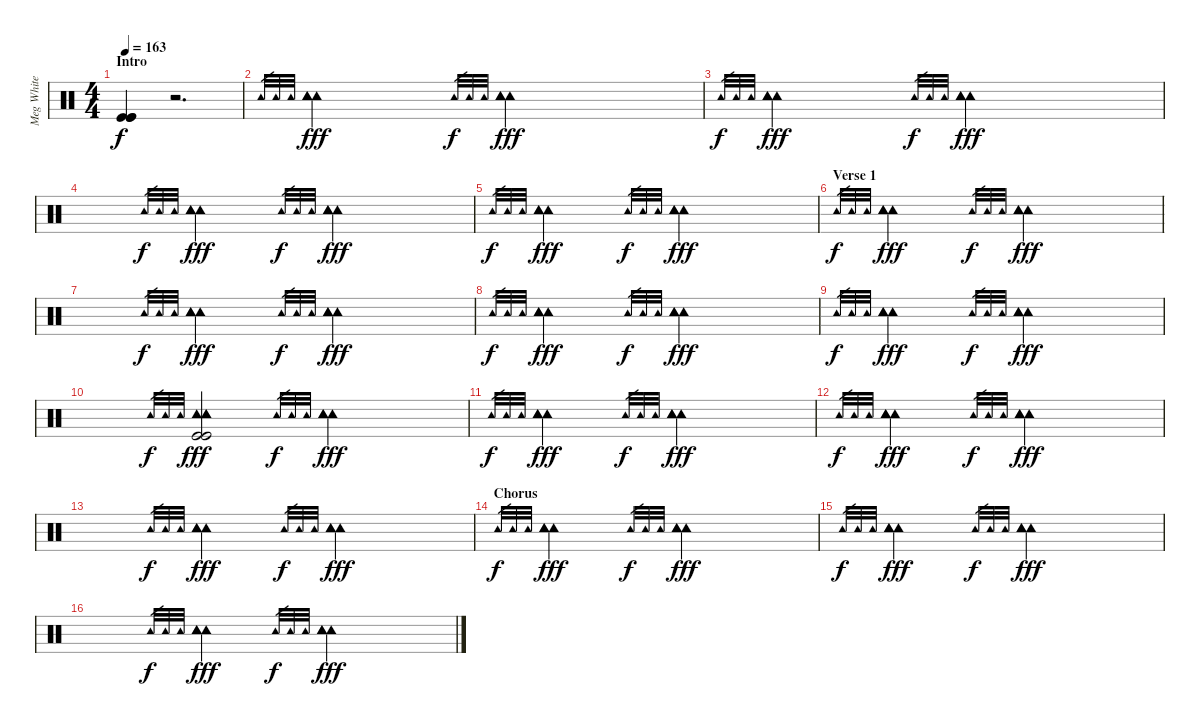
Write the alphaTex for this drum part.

\track ("Meg White" "Meg White") {instrument percussion}
\staff {score}
\articulation defaults
\ts (4 4)
\section ("" "Intro")
\tempo 163
\clef neutral
\ks c
("Kick (hit)" "Kick (hit)" "Kick (hit)").4{dy f} r.2{d} |
"Tambourine (hit)".32{gr} "Tambourine (hit)".32{gr} "Tambourine (hit)".32{gr} ("Tambourine (hit)" "Tambourine (hit)" "Tambourine (hit)").2{dy fff} "Tambourine (hit)".32{gr dy f} "Tambourine (hit)".32{gr} "Tambourine (hit)".32{gr} ("Tambourine (hit)" "Tambourine (hit)" "Tambourine (hit)").2{dy fff} |
"Tambourine (hit)".32{gr dy f} "Tambourine (hit)".32{gr} "Tambourine (hit)".32{gr} ("Tambourine (hit)" "Tambourine (hit)" "Tambourine (hit)").2{dy fff} "Tambourine (hit)".32{gr dy f} "Tambourine (hit)".32{gr} "Tambourine (hit)".32{gr} ("Tambourine (hit)" "Tambourine (hit)" "Tambourine (hit)").2{dy fff} |
"Tambourine (hit)".32{gr dy f} "Tambourine (hit)".32{gr} "Tambourine (hit)".32{gr} ("Tambourine (hit)" "Tambourine (hit)" "Tambourine (hit)").2{dy fff} "Tambourine (hit)".32{gr dy f} "Tambourine (hit)".32{gr} "Tambourine (hit)".32{gr} ("Tambourine (hit)" "Tambourine (hit)" "Tambourine (hit)").2{dy fff} |
"Tambourine (hit)".32{gr dy f} "Tambourine (hit)".32{gr} "Tambourine (hit)".32{gr} ("Tambourine (hit)" "Tambourine (hit)" "Tambourine (hit)").2{dy fff} "Tambourine (hit)".32{gr dy f} "Tambourine (hit)".32{gr} "Tambourine (hit)".32{gr} ("Tambourine (hit)" "Tambourine (hit)" "Tambourine (hit)").2{dy fff} |
\section ("" "Verse 1")
"Tambourine (hit)".32{gr dy f} "Tambourine (hit)".32{gr} "Tambourine (hit)".32{gr} ("Tambourine (hit)" "Tambourine (hit)" "Tambourine (hit)").2{dy fff} "Tambourine (hit)".32{gr dy f} "Tambourine (hit)".32{gr} "Tambourine (hit)".32{gr} ("Tambourine (hit)" "Tambourine (hit)" "Tambourine (hit)").2{dy fff} |
"Tambourine (hit)".32{gr dy f} "Tambourine (hit)".32{gr} "Tambourine (hit)".32{gr} ("Tambourine (hit)" "Tambourine (hit)" "Tambourine (hit)").2{dy fff} "Tambourine (hit)".32{gr dy f} "Tambourine (hit)".32{gr} "Tambourine (hit)".32{gr} ("Tambourine (hit)" "Tambourine (hit)" "Tambourine (hit)").2{dy fff} |
"Tambourine (hit)".32{gr dy f} "Tambourine (hit)".32{gr} "Tambourine (hit)".32{gr} ("Tambourine (hit)" "Tambourine (hit)" "Tambourine (hit)").2{dy fff} "Tambourine (hit)".32{gr dy f} "Tambourine (hit)".32{gr} "Tambourine (hit)".32{gr} ("Tambourine (hit)" "Tambourine (hit)" "Tambourine (hit)").2{dy fff} |
"Tambourine (hit)".32{gr dy f} "Tambourine (hit)".32{gr} "Tambourine (hit)".32{gr} ("Tambourine (hit)" "Tambourine (hit)" "Tambourine (hit)").2{dy fff} "Tambourine (hit)".32{gr dy f} "Tambourine (hit)".32{gr} "Tambourine (hit)".32{gr} ("Tambourine (hit)" "Tambourine (hit)" "Tambourine (hit)").2{dy fff} |
"Tambourine (hit)".32{gr dy f} "Tambourine (hit)".32{gr} "Tambourine (hit)".32{gr} ("Tambourine (hit)" "Tambourine (hit)" "Tambourine (hit)" "Kick (hit)" "Kick (hit)").2{dy fff} "Tambourine (hit)".32{gr dy f} "Tambourine (hit)".32{gr} "Tambourine (hit)".32{gr} ("Tambourine (hit)" "Tambourine (hit)" "Tambourine (hit)").2{dy fff} |
"Tambourine (hit)".32{gr dy f} "Tambourine (hit)".32{gr} "Tambourine (hit)".32{gr} ("Tambourine (hit)" "Tambourine (hit)" "Tambourine (hit)").2{dy fff} "Tambourine (hit)".32{gr dy f} "Tambourine (hit)".32{gr} "Tambourine (hit)".32{gr} ("Tambourine (hit)" "Tambourine (hit)" "Tambourine (hit)").2{dy fff} |
"Tambourine (hit)".32{gr dy f} "Tambourine (hit)".32{gr} "Tambourine (hit)".32{gr} ("Tambourine (hit)" "Tambourine (hit)" "Tambourine (hit)").2{dy fff} "Tambourine (hit)".32{gr dy f} "Tambourine (hit)".32{gr} "Tambourine (hit)".32{gr} ("Tambourine (hit)" "Tambourine (hit)" "Tambourine (hit)").2{dy fff} |
"Tambourine (hit)".32{gr dy f} "Tambourine (hit)".32{gr} "Tambourine (hit)".32{gr} ("Tambourine (hit)" "Tambourine (hit)" "Tambourine (hit)").2{dy fff} "Tambourine (hit)".32{gr dy f} "Tambourine (hit)".32{gr} "Tambourine (hit)".32{gr} ("Tambourine (hit)" "Tambourine (hit)" "Tambourine (hit)").2{dy fff} |
\section ("" "Chorus")
"Tambourine (hit)".32{gr dy f} "Tambourine (hit)".32{gr} "Tambourine (hit)".32{gr} ("Tambourine (hit)" "Tambourine (hit)" "Tambourine (hit)").2{dy fff} "Tambourine (hit)".32{gr dy f} "Tambourine (hit)".32{gr} "Tambourine (hit)".32{gr} ("Tambourine (hit)" "Tambourine (hit)" "Tambourine (hit)").2{dy fff} |
"Tambourine (hit)".32{gr dy f} "Tambourine (hit)".32{gr} "Tambourine (hit)".32{gr} ("Tambourine (hit)" "Tambourine (hit)" "Tambourine (hit)").2{dy fff} "Tambourine (hit)".32{gr dy f} "Tambourine (hit)".32{gr} "Tambourine (hit)".32{gr} ("Tambourine (hit)" "Tambourine (hit)" "Tambourine (hit)").2{dy fff} |
"Tambourine (hit)".32{gr dy f} "Tambourine (hit)".32{gr} "Tambourine (hit)".32{gr} ("Tambourine (hit)" "Tambourine (hit)" "Tambourine (hit)").2{dy fff} "Tambourine (hit)".32{gr dy f} "Tambourine (hit)".32{gr} "Tambourine (hit)".32{gr} ("Tambourine (hit)" "Tambourine (hit)" "Tambourine (hit)").2{dy fff}
